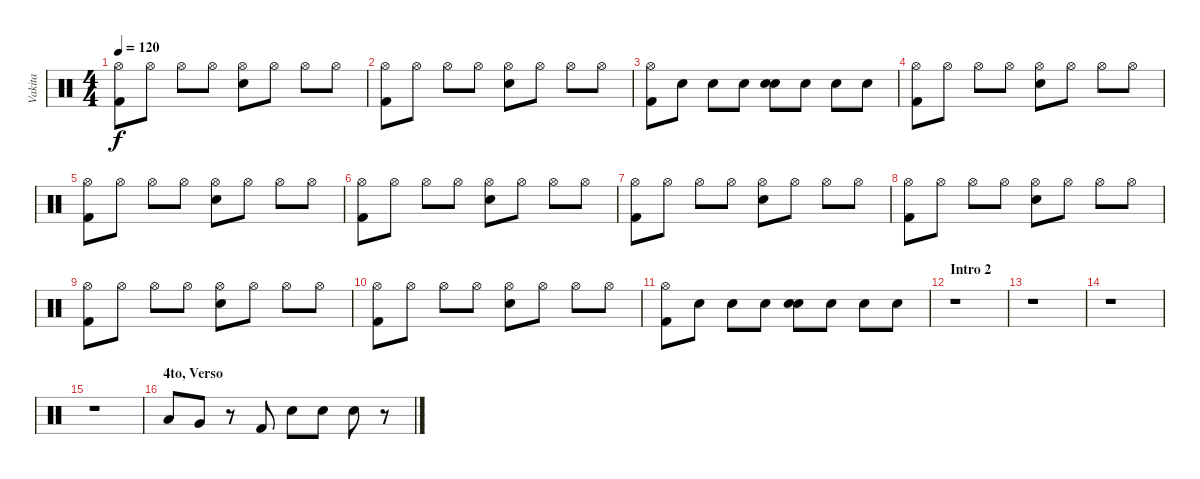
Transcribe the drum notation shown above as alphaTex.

\track ("Vakita" "Vakita") {instrument percussion}
\staff {score}
\articulation defaults
\ts (4 4)
\tempo 120
\clef neutral
\ks c
("Hi-Hat (open)" "Kick (hit) 2").8{dy f} "Hi-Hat (open)".8 "Hi-Hat (open)".8 "Hi-Hat (open)".8 ("Hi-Hat (open)" "Snare (hit) 2").8 "Hi-Hat (open)".8 "Hi-Hat (open)".8 "Hi-Hat (open)".8 |
("Hi-Hat (open)" "Kick (hit) 2").8 "Hi-Hat (open)".8 "Hi-Hat (open)".8 "Hi-Hat (open)".8 ("Hi-Hat (open)" "Snare (hit) 2").8 "Hi-Hat (open)".8 "Hi-Hat (open)".8 "Hi-Hat (open)".8 |
("Hi-Hat (open)" "Kick (hit) 2").8 "Snare (hit) 2".8 "Snare (hit) 2".8 "Snare (hit) 2".8 ("Snare (hit) 2" "Snare (hit) 2").8 "Snare (hit) 2".8 "Snare (hit) 2".8 "Snare (hit) 2".8 |
("Hi-Hat (open)" "Kick (hit) 2").8 "Hi-Hat (open)".8 "Hi-Hat (open)".8 "Hi-Hat (open)".8 ("Hi-Hat (open)" "Snare (hit) 2").8 "Hi-Hat (open)".8 "Hi-Hat (open)".8 "Hi-Hat (open)".8 |
("Hi-Hat (open)" "Kick (hit) 2").8 "Hi-Hat (open)".8 "Hi-Hat (open)".8 "Hi-Hat (open)".8 ("Hi-Hat (open)" "Snare (hit) 2").8 "Hi-Hat (open)".8 "Hi-Hat (open)".8 "Hi-Hat (open)".8 |
("Hi-Hat (open)" "Kick (hit) 2").8 "Hi-Hat (open)".8 "Hi-Hat (open)".8 "Hi-Hat (open)".8 ("Hi-Hat (open)" "Snare (hit) 2").8 "Hi-Hat (open)".8 "Hi-Hat (open)".8 "Hi-Hat (open)".8 |
("Hi-Hat (open)" "Kick (hit) 2").8 "Hi-Hat (open)".8 "Hi-Hat (open)".8 "Hi-Hat (open)".8 ("Hi-Hat (open)" "Snare (hit) 2").8 "Hi-Hat (open)".8 "Hi-Hat (open)".8 "Hi-Hat (open)".8 |
("Hi-Hat (open)" "Kick (hit) 2").8 "Hi-Hat (open)".8 "Hi-Hat (open)".8 "Hi-Hat (open)".8 ("Hi-Hat (open)" "Snare (hit) 2").8 "Hi-Hat (open)".8 "Hi-Hat (open)".8 "Hi-Hat (open)".8 |
("Hi-Hat (open)" "Kick (hit) 2").8 "Hi-Hat (open)".8 "Hi-Hat (open)".8 "Hi-Hat (open)".8 ("Hi-Hat (open)" "Snare (hit) 2").8 "Hi-Hat (open)".8 "Hi-Hat (open)".8 "Hi-Hat (open)".8 |
("Hi-Hat (open)" "Kick (hit) 2").8 "Hi-Hat (open)".8 "Hi-Hat (open)".8 "Hi-Hat (open)".8 ("Hi-Hat (open)" "Snare (hit) 2").8 "Hi-Hat (open)".8 "Hi-Hat (open)".8 "Hi-Hat (open)".8 |
("Hi-Hat (open)" "Kick (hit) 2").8 "Snare (hit) 2".8 "Snare (hit) 2".8 "Snare (hit) 2".8 ("Snare (hit) 2" "Snare (hit) 2").8 "Snare (hit) 2".8 "Snare (hit) 2".8 "Snare (hit) 2".8 |
\section ("" "Intro 2")
r.1 |
r.1 |
r.1 |
r.1 |
\section ("" "4to, Verso")
"Low Tom (hit)".8 "Very Low Tom (hit)".8 r.8 "Kick (hit) 2".8 "Snare (hit) 2".8 "Snare (hit) 2".8 "Snare (hit) 2".8 r.8
